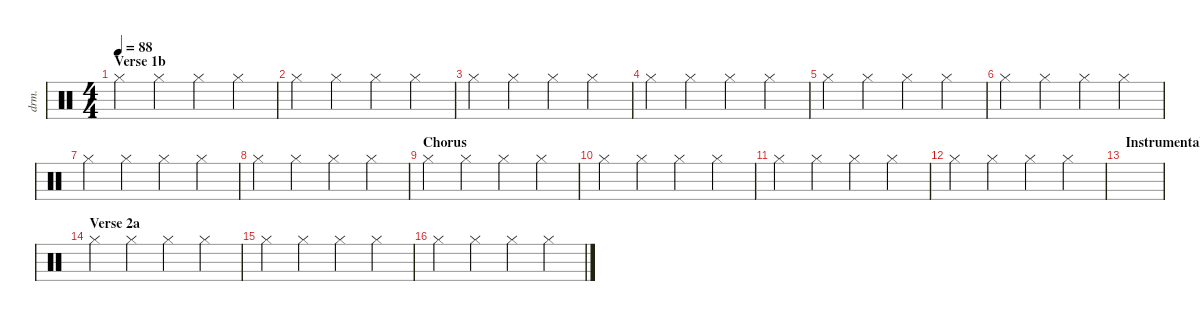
\defaultSystemsLayout 4
\hideDynamics
\bracketExtendMode nobrackets
\otherSystemsTrackNameOrientation horizontal
\track ("Drumkit" "drm.") {instrument percussion}
\staff {score}
\articulation defaults
\ts (4 4)
\section ("" "Verse 1b")
\tempo 88
\clef neutral
\ks c "Hi-Hat (closed)".4{dy mf beam Down} "Hi-Hat (closed)".4{beam Down} "Hi-Hat (closed)".4{beam Down} "Hi-Hat (closed)".4{beam Down}
|
"Hi-Hat (closed)".4{beam Down} "Hi-Hat (closed)".4{beam Down} "Hi-Hat (closed)".4{beam Down} "Hi-Hat (closed)".4{beam Down} |
"Hi-Hat (closed)".4{beam Down} "Hi-Hat (closed)".4{beam Down} "Hi-Hat (closed)".4{beam Down} "Hi-Hat (closed)".4{beam Down} |
"Hi-Hat (closed)".4{beam Down} "Hi-Hat (closed)".4{beam Down} "Hi-Hat (closed)".4{beam Down} "Hi-Hat (closed)".4{beam Down} |
"Hi-Hat (closed)".4{beam Down} "Hi-Hat (closed)".4{beam Down} "Hi-Hat (closed)".4{beam Down} "Hi-Hat (closed)".4{beam Down} |
"Hi-Hat (closed)".4{beam Down} "Hi-Hat (closed)".4{beam Down} "Hi-Hat (closed)".4{beam Down} "Hi-Hat (closed)".4{beam Down} |
"Hi-Hat (closed)".4{beam Down} "Hi-Hat (closed)".4{beam Down} "Hi-Hat (closed)".4{beam Down} "Hi-Hat (closed)".4{beam Down} |
"Hi-Hat (closed)".4{beam Down} "Hi-Hat (closed)".4{beam Down} "Hi-Hat (closed)".4{beam Down} "Hi-Hat (closed)".4{beam Down} |
\section ("" "Chorus")
"Hi-Hat (closed)".4{beam Down} "Hi-Hat (closed)".4{beam Down} "Hi-Hat (closed)".4{beam Down} "Hi-Hat (closed)".4{beam Down} |
"Hi-Hat (closed)".4{beam Down} "Hi-Hat (closed)".4{beam Down} "Hi-Hat (closed)".4{beam Down} "Hi-Hat (closed)".4{beam Down} |
"Hi-Hat (closed)".4{beam Down} "Hi-Hat (closed)".4{beam Down} "Hi-Hat (closed)".4{beam Down} "Hi-Hat (closed)".4{beam Down} |
"Hi-Hat (closed)".4{beam Down} "Hi-Hat (closed)".4{beam Down} "Hi-Hat (closed)".4{beam Down} "Hi-Hat (closed)".4{beam Down} |
\section ("" "Instrumental")
|
\section ("" "Verse 2a")
"Hi-Hat (closed)".4{beam Down} "Hi-Hat (closed)".4{beam Down} "Hi-Hat (closed)".4{beam Down} "Hi-Hat (closed)".4{beam Down} |
"Hi-Hat (closed)".4{beam Down} "Hi-Hat (closed)".4{beam Down} "Hi-Hat (closed)".4{beam Down} "Hi-Hat (closed)".4{beam Down} |
"Hi-Hat (closed)".4{beam Down} "Hi-Hat (closed)".4{beam Down} "Hi-Hat (closed)".4{beam Down} "Hi-Hat (closed)".4{beam Down}
